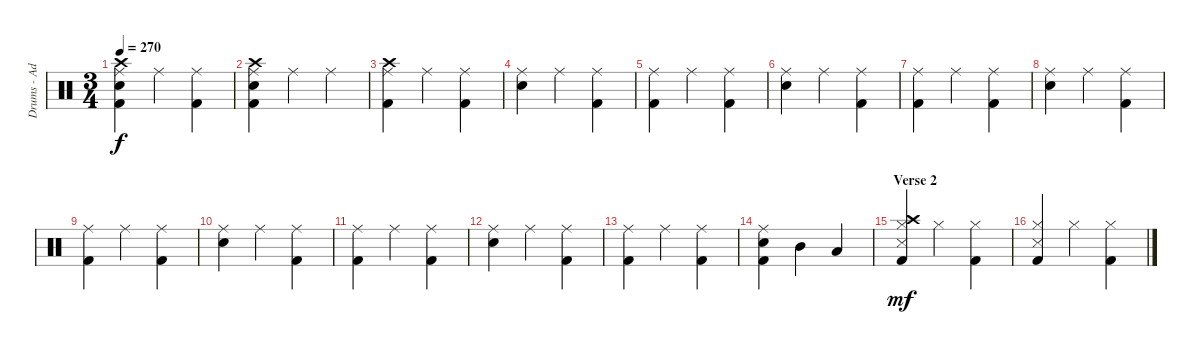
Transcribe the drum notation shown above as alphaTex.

\track ("Drums - Adam" "Drums - Ad") {instrument percussion}
\staff {score}
\articulation defaults
\ts (3 4)
\tempo 270
\clef neutral
\ks c
("Ride (middle)" "Kick (hit) 2" "Electric Snare (hit)" "Crash high (hit)").4{dy f} "Ride (middle)".4 ("Ride (middle)" "Kick (hit) 2").4 |
("Ride (middle)" "Kick (hit) 2" "Electric Snare (hit)" "Crash high (hit)").4 "Ride (middle)".4 "Ride (middle)".4 |
("Ride (middle)" "Kick (hit) 2" "Crash high (hit)").4 "Ride (middle)".4 ("Ride (middle)" "Kick (hit) 2").4 |
("Ride (middle)" "Electric Snare (hit)").4 "Ride (middle)".4 ("Ride (middle)" "Kick (hit) 2").4 |
("Ride (middle)" "Kick (hit) 2").4 "Ride (middle)".4 ("Ride (middle)" "Kick (hit) 2").4 |
("Ride (middle)" "Electric Snare (hit)").4 "Ride (middle)".4 ("Ride (middle)" "Kick (hit) 2").4 |
("Ride (middle)" "Kick (hit) 2").4 "Ride (middle)".4 ("Ride (middle)" "Kick (hit) 2").4 |
("Ride (middle)" "Electric Snare (hit)").4 "Ride (middle)".4 ("Ride (middle)" "Kick (hit) 2").4 |
("Ride (middle)" "Kick (hit) 2").4 "Ride (middle)".4 ("Ride (middle)" "Kick (hit) 2").4 |
("Ride (middle)" "Electric Snare (hit)").4 "Ride (middle)".4 ("Ride (middle)" "Kick (hit) 2").4 |
("Ride (middle)" "Kick (hit) 2").4 "Ride (middle)".4 ("Ride (middle)" "Kick (hit) 2").4 |
("Ride (middle)" "Electric Snare (hit)").4 "Ride (middle)".4 ("Ride (middle)" "Kick (hit) 2").4 |
("Ride (middle)" "Kick (hit) 2").4 "Ride (middle)".4 ("Ride (middle)" "Kick (hit) 2").4 |
("Ride (middle)" "Kick (hit) 2" "Electric Snare (hit)").4 "Mid Tom (hit)".4 "Low Tom (hit)".4 |
\section ("" "Verse 2")
("Hi-Hat (closed)" "Kick (hit) 2" "Snare (side stick) 3" "Crash high (hit)").4{dy mf} "Hi-Hat (closed)".4 ("Hi-Hat (closed)" "Kick (hit) 2").4 |
("Hi-Hat (closed)" "Kick (hit) 2" "Snare (side stick) 3").4 "Hi-Hat (closed)".4 ("Hi-Hat (closed)" "Kick (hit) 2").4
